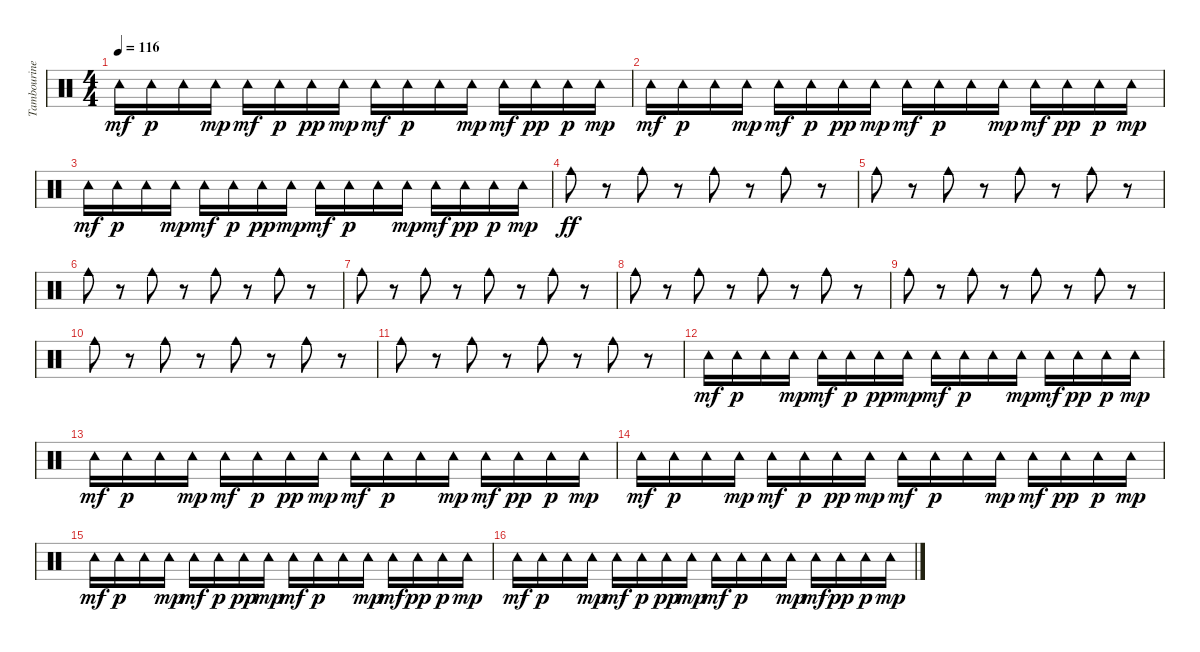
\track ("Tambourine" "Tambourine") {instrument percussion}
\staff {score}
\articulation defaults
\ts (4 4)
\tempo 116
\clef neutral
\ks c "Tambourine (hit)".16{dy mf} "Tambourine (hit)".16{dy p} "Tambourine (hit)".16 "Tambourine (hit)".16{dy mp} "Tambourine (hit)".16{dy mf} "Tambourine (hit)".16{dy p} "Tambourine (hit)".16{dy pp} "Tambourine (hit)".16{dy mp} "Tambourine (hit)".16{dy mf} "Tambourine (hit)".16{dy p} "Tambourine (hit)".16 "Tambourine (hit)".16{dy mp} "Tambourine (hit)".16{dy mf} "Tambourine (hit)".16{dy pp} "Tambourine (hit)".16{dy p} "Tambourine (hit)".16{dy mp}
|
"Tambourine (hit)".16{dy mf} "Tambourine (hit)".16{dy p} "Tambourine (hit)".16 "Tambourine (hit)".16{dy mp} "Tambourine (hit)".16{dy mf} "Tambourine (hit)".16{dy p} "Tambourine (hit)".16{dy pp} "Tambourine (hit)".16{dy mp} "Tambourine (hit)".16{dy mf} "Tambourine (hit)".16{dy p} "Tambourine (hit)".16 "Tambourine (hit)".16{dy mp} "Tambourine (hit)".16{dy mf} "Tambourine (hit)".16{dy pp} "Tambourine (hit)".16{dy p} "Tambourine (hit)".16{dy mp} |
"Tambourine (hit)".16{dy mf} "Tambourine (hit)".16{dy p} "Tambourine (hit)".16 "Tambourine (hit)".16{dy mp} "Tambourine (hit)".16{dy mf} "Tambourine (hit)".16{dy p} "Tambourine (hit)".16{dy pp} "Tambourine (hit)".16{dy mp} "Tambourine (hit)".16{dy mf} "Tambourine (hit)".16{dy p} "Tambourine (hit)".16 "Tambourine (hit)".16{dy mp} "Tambourine (hit)".16{dy mf} "Tambourine (hit)".16{dy pp} "Tambourine (hit)".16{dy p} "Tambourine (hit)".16{dy mp} |
"Cowbell medium (hit)".8{dy ff} r.8 "Cowbell medium (hit)".8 r.8 "Cowbell medium (hit)".8 r.8 "Cowbell medium (hit)".8 r.8 |
"Cowbell medium (hit)".8 r.8 "Cowbell medium (hit)".8 r.8 "Cowbell medium (hit)".8 r.8 "Cowbell medium (hit)".8 r.8 |
"Cowbell medium (hit)".8 r.8 "Cowbell medium (hit)".8 r.8 "Cowbell medium (hit)".8 r.8 "Cowbell medium (hit)".8 r.8 |
"Cowbell medium (hit)".8 r.8 "Cowbell medium (hit)".8 r.8 "Cowbell medium (hit)".8 r.8 "Cowbell medium (hit)".8 r.8 |
"Cowbell medium (hit)".8 r.8 "Cowbell medium (hit)".8 r.8 "Cowbell medium (hit)".8 r.8 "Cowbell medium (hit)".8 r.8 |
"Cowbell medium (hit)".8 r.8 "Cowbell medium (hit)".8 r.8 "Cowbell medium (hit)".8 r.8 "Cowbell medium (hit)".8 r.8 |
"Cowbell medium (hit)".8 r.8 "Cowbell medium (hit)".8 r.8 "Cowbell medium (hit)".8 r.8 "Cowbell medium (hit)".8 r.8 |
"Cowbell medium (hit)".8 r.8 "Cowbell medium (hit)".8 r.8 "Cowbell medium (hit)".8 r.8 "Cowbell medium (hit)".8 r.8 |
"Tambourine (hit)".16{dy mf} "Tambourine (hit)".16{dy p} "Tambourine (hit)".16 "Tambourine (hit)".16{dy mp} "Tambourine (hit)".16{dy mf} "Tambourine (hit)".16{dy p} "Tambourine (hit)".16{dy pp} "Tambourine (hit)".16{dy mp} "Tambourine (hit)".16{dy mf} "Tambourine (hit)".16{dy p} "Tambourine (hit)".16 "Tambourine (hit)".16{dy mp} "Tambourine (hit)".16{dy mf} "Tambourine (hit)".16{dy pp} "Tambourine (hit)".16{dy p} "Tambourine (hit)".16{dy mp} |
"Tambourine (hit)".16{dy mf} "Tambourine (hit)".16{dy p} "Tambourine (hit)".16 "Tambourine (hit)".16{dy mp} "Tambourine (hit)".16{dy mf} "Tambourine (hit)".16{dy p} "Tambourine (hit)".16{dy pp} "Tambourine (hit)".16{dy mp} "Tambourine (hit)".16{dy mf} "Tambourine (hit)".16{dy p} "Tambourine (hit)".16 "Tambourine (hit)".16{dy mp} "Tambourine (hit)".16{dy mf} "Tambourine (hit)".16{dy pp} "Tambourine (hit)".16{dy p} "Tambourine (hit)".16{dy mp} |
"Tambourine (hit)".16{dy mf} "Tambourine (hit)".16{dy p} "Tambourine (hit)".16 "Tambourine (hit)".16{dy mp} "Tambourine (hit)".16{dy mf} "Tambourine (hit)".16{dy p} "Tambourine (hit)".16{dy pp} "Tambourine (hit)".16{dy mp} "Tambourine (hit)".16{dy mf} "Tambourine (hit)".16{dy p} "Tambourine (hit)".16 "Tambourine (hit)".16{dy mp} "Tambourine (hit)".16{dy mf} "Tambourine (hit)".16{dy pp} "Tambourine (hit)".16{dy p} "Tambourine (hit)".16{dy mp} |
"Tambourine (hit)".16{dy mf} "Tambourine (hit)".16{dy p} "Tambourine (hit)".16 "Tambourine (hit)".16{dy mp} "Tambourine (hit)".16{dy mf} "Tambourine (hit)".16{dy p} "Tambourine (hit)".16{dy pp} "Tambourine (hit)".16{dy mp} "Tambourine (hit)".16{dy mf} "Tambourine (hit)".16{dy p} "Tambourine (hit)".16 "Tambourine (hit)".16{dy mp} "Tambourine (hit)".16{dy mf} "Tambourine (hit)".16{dy pp} "Tambourine (hit)".16{dy p} "Tambourine (hit)".16{dy mp} |
"Tambourine (hit)".16{dy mf} "Tambourine (hit)".16{dy p} "Tambourine (hit)".16 "Tambourine (hit)".16{dy mp} "Tambourine (hit)".16{dy mf} "Tambourine (hit)".16{dy p} "Tambourine (hit)".16{dy pp} "Tambourine (hit)".16{dy mp} "Tambourine (hit)".16{dy mf} "Tambourine (hit)".16{dy p} "Tambourine (hit)".16 "Tambourine (hit)".16{dy mp} "Tambourine (hit)".16{dy mf} "Tambourine (hit)".16{dy pp} "Tambourine (hit)".16{dy p} "Tambourine (hit)".16{dy mp}
